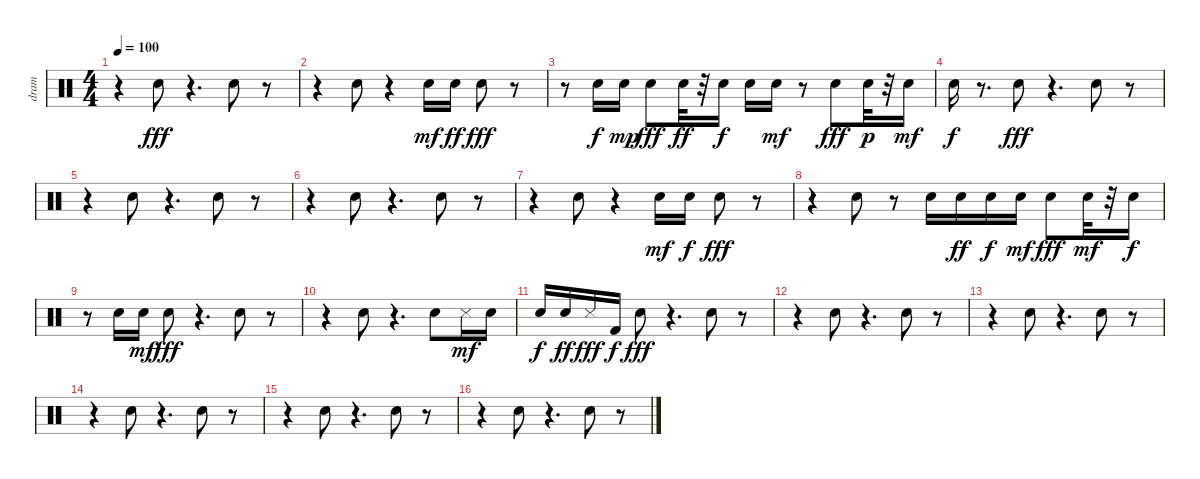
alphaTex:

\track ("dram" "dram") {instrument percussion}
\staff {score}
\articulation defaults
\ts (4 4)
\tempo 100
\clef neutral
\ks c
r.4{dy fff} "Snare (hit) 2".8 r.4{d} "Snare (hit) 2".8 r.8 |
r.4 "Snare (hit) 2".8 r.4 "Snare (hit) 2".16{dy mf} "Snare (hit) 2".16{dy ff} "Snare (hit) 2".8{dy fff} r.8 |
r.8 "Snare (hit) 2".16{dy f} "Snare (hit) 2".16{dy mp} "Snare (hit) 2".8{dy fff} "Snare (hit) 2".32{dy ff} r.32 "Snare (hit) 2".16{dy f} "Snare (hit) 2".16 "Snare (hit) 2".16{dy mf} r.8 "Snare (hit) 2".8{dy fff} "Snare (hit) 2".32{dy p} r.32 "Snare (hit) 2".16{dy mf} |
"Snare (hit) 2".16{dy f} r.8{d} "Snare (hit) 2".8{dy fff} r.4{d} "Snare (hit) 2".8 r.8 |
r.4 "Snare (hit) 2".8 r.4{d} "Snare (hit) 2".8 r.8 |
r.4 "Snare (hit) 2".8 r.4{d} "Snare (hit) 2".8 r.8 |
r.4 "Snare (hit) 2".8 r.4 "Snare (hit) 2".16{dy mf} "Snare (hit) 2".16{dy f} "Snare (hit) 2".8{dy fff} r.8 |
r.4 "Snare (hit) 2".8 r.8 "Snare (hit) 2".16 "Snare (hit) 2".16{dy ff} "Snare (hit) 2".16{dy f} "Snare (hit) 2".16{dy mf} "Snare (hit) 2".8{dy fff} "Snare (hit) 2".32{dy mf} r.32 "Snare (hit) 2".16{dy f} |
r.8 "Snare (hit) 2".16 "Snare (hit) 2".16{dy mf} "Snare (hit) 2".8{dy fff} r.4{d} "Snare (hit) 2".8 r.8 |
r.4 "Snare (hit) 2".8 r.4{d} "Snare (hit) 2".8 "Snare (side stick) 3".16{dy mf} "Snare (hit) 2".16 |
"Hand Clap (hit)".16{dy f} "Electric Snare (hit)".16{dy ff} "Snare (side stick) 3".16{dy fff} "Kick (hit) 2".16{dy f} "Snare (hit) 2".8{dy fff} r.4{d} "Snare (hit) 2".8 r.8 |
r.4 "Snare (hit) 2".8 r.4{d} "Snare (hit) 2".8 r.8 |
r.4 "Snare (hit) 2".8 r.4{d} "Snare (hit) 2".8 r.8 |
r.4 "Snare (hit) 2".8 r.4{d} "Snare (hit) 2".8 r.8 |
r.4 "Snare (hit) 2".8 r.4{d} "Snare (hit) 2".8 r.8 |
r.4 "Snare (hit) 2".8 r.4{d} "Snare (hit) 2".8 r.8
